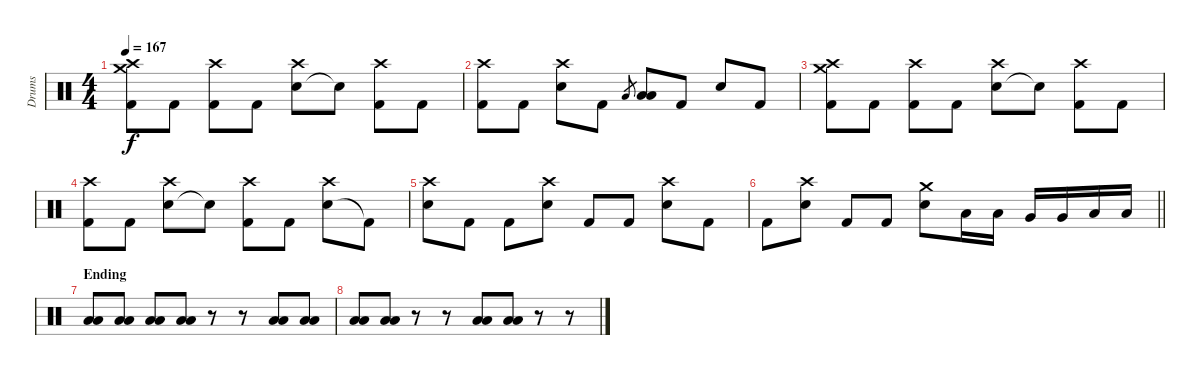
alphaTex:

\track ("Drums" "Drums") {instrument percussion}
\staff {score}
\articulation defaults
\ts (4 4)
\tempo 167
\clef neutral
\ks c
("Kick (hit) 2" "Crash medium (hit)" "Crash high (hit)").8{dy f} "Kick (hit) 2".8 ("Kick (hit) 2" "Crash high (hit)").8 "Kick (hit) 2".8 ("Electric Snare (hit)" "Crash high (hit)").8 "Snare (hit)"{t}.8 ("Kick (hit) 2" "Crash high (hit)").8 "Kick (hit) 2".8 |
("Kick (hit) 2" "Crash high (hit)").8 "Kick (hit) 2".8 ("Electric Snare (hit)" "Crash high (hit)").8 "Kick (hit) 2".8 "Low Tom (hit)".8{gr} ("Low Tom (hit)" "Low Floor Tom (hit)").8 "Kick (hit) 2".8 "Electric Snare (hit)".8 "Kick (hit) 2".8 |
("Kick (hit) 2" "Crash medium (hit)" "Crash high (hit)").8 "Kick (hit) 2".8 ("Kick (hit) 2" "Crash high (hit)").8 "Kick (hit) 2".8 ("Electric Snare (hit)" "Crash high (hit)").8 "Snare (hit)"{t}.8 ("Kick (hit) 2" "Crash high (hit)").8 "Kick (hit) 2".8 |
("Kick (hit) 2" "Crash high (hit)").8 "Kick (hit) 2".8 ("Electric Snare (hit)" "Crash high (hit)").8 "Snare (hit)"{t}.8 ("Kick (hit) 2" "Crash high (hit)").8 "Kick (hit) 2".8 ("Electric Snare (hit)" "Crash high (hit)").8 "Kick (hit) 2"{t}.8 |
("Electric Snare (hit)" "Crash high (hit)").8 "Kick (hit) 2".8 "Kick (hit) 2".8 ("Electric Snare (hit)" "Crash high (hit)").8 "Kick (hit) 2".8 "Kick (hit) 2".8 ("Electric Snare (hit)" "Crash high (hit)").8 "Kick (hit) 2".8 |
\barLineRight lightlight "Kick (hit) 2".8
("Electric Snare (hit)" "Crash high (hit)").8 "Kick (hit) 2".8 "Kick (hit) 2".8 ("Electric Snare (hit)" "Crash medium (hit)").8 "Low Tom (hit)".16 "Low Tom (hit)".16 "Very Low Tom (hit)".16 "Very Low Tom (hit)".16 "Low Floor Tom (hit)".16 "Low Floor Tom (hit)".16 |
\section ("" "Ending")
("Low Tom (hit)" "Low Floor Tom (hit)").8 ("Low Tom (hit)" "Low Floor Tom (hit)").8 ("Low Tom (hit)" "Low Floor Tom (hit)").8 ("Low Tom (hit)" "Low Floor Tom (hit)").8 r.8 r.8 ("Low Tom (hit)" "Low Floor Tom (hit)").8 ("Low Tom (hit)" "Low Floor Tom (hit)").8 |
("Low Tom (hit)" "Low Floor Tom (hit)").8 ("Low Tom (hit)" "Low Floor Tom (hit)").8 r.8 r.8 ("Low Tom (hit)" "Low Floor Tom (hit)").8 ("Low Tom (hit)" "Low Floor Tom (hit)").8 r.8 r.8
